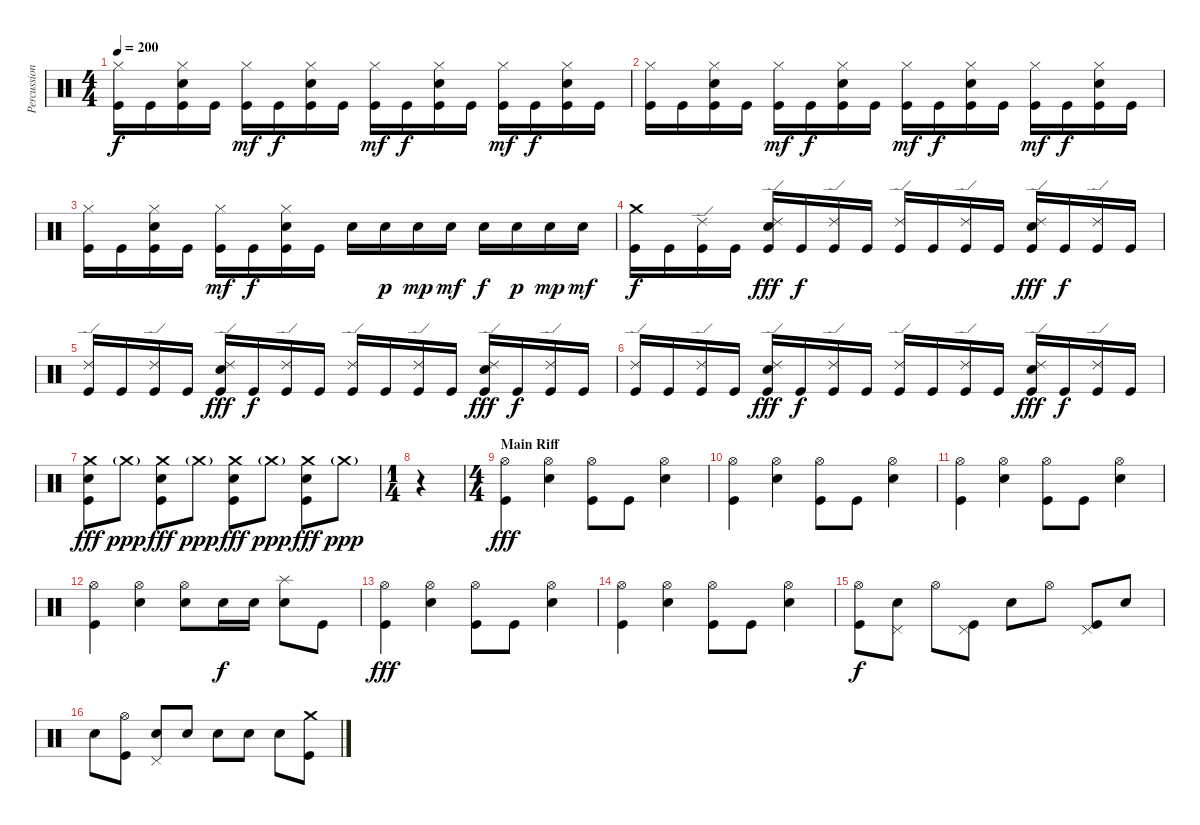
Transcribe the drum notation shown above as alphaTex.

\track ("Percussion" "Percussion") {instrument percussion}
\staff {score}
\articulation defaults
\ts (4 4)
\tempo 200
\clef neutral
\ks c
("Hi-Hat (closed)" "Kick (hit)").16{dy f} "Kick (hit)".16 ("Hi-Hat (closed)" "Electric Snare (hit)" "Kick (hit)").16 "Kick (hit)".16 ("Hi-Hat (closed)" "Kick (hit)").16{dy mf} "Kick (hit)".16{dy f} ("Hi-Hat (closed)" "Electric Snare (hit)" "Kick (hit)").16 "Kick (hit)".16 ("Hi-Hat (closed)" "Kick (hit)").16{dy mf} "Kick (hit)".16{dy f} ("Hi-Hat (closed)" "Electric Snare (hit)" "Kick (hit)").16 "Kick (hit)".16 ("Hi-Hat (closed)" "Kick (hit)").16{dy mf} "Kick (hit)".16{dy f} ("Hi-Hat (closed)" "Electric Snare (hit)" "Kick (hit)").16 "Kick (hit)".16 |
("Hi-Hat (closed)" "Kick (hit)").16 "Kick (hit)".16 ("Hi-Hat (closed)" "Electric Snare (hit)" "Kick (hit)").16 "Kick (hit)".16 ("Hi-Hat (closed)" "Kick (hit)").16{dy mf} "Kick (hit)".16{dy f} ("Hi-Hat (closed)" "Electric Snare (hit)" "Kick (hit)").16 "Kick (hit)".16 ("Hi-Hat (closed)" "Kick (hit)").16{dy mf} "Kick (hit)".16{dy f} ("Hi-Hat (closed)" "Electric Snare (hit)" "Kick (hit)").16 "Kick (hit)".16 ("Hi-Hat (closed)" "Kick (hit)").16{dy mf} "Kick (hit)".16{dy f} ("Hi-Hat (closed)" "Electric Snare (hit)" "Kick (hit)").16 "Kick (hit)".16 |
("Hi-Hat (closed)" "Kick (hit)").16 "Kick (hit)".16 ("Hi-Hat (closed)" "Electric Snare (hit)" "Kick (hit)").16 "Kick (hit)".16 ("Hi-Hat (closed)" "Kick (hit)").16{dy mf} "Kick (hit)".16{dy f} ("Hi-Hat (closed)" "Electric Snare (hit)" "Kick (hit)").16 "Kick (hit)".16 "Electric Snare (hit)".16 "Electric Snare (hit)".16{dy p} "Electric Snare (hit)".16{dy mp} "Electric Snare (hit)".16{dy mf} "Electric Snare (hit)".16{dy f} "Electric Snare (hit)".16{dy p} "Electric Snare (hit)".16{dy mp} "Electric Snare (hit)".16{dy mf} |
("Crash medium (hit)" "Kick (hit)").16{dy f} "Kick (hit)".16 ("Ride (edge) 2" "Kick (hit)").16 "Kick (hit)".16 ("Ride (edge) 2" "Electric Snare (hit)" "Kick (hit)").16{dy fff} "Kick (hit)".16{dy f} ("Ride (edge) 2" "Kick (hit)").16 "Kick (hit)".16 ("Ride (edge) 2" "Kick (hit)").16 "Kick (hit)".16 ("Ride (edge) 2" "Kick (hit)").16 "Kick (hit)".16 ("Ride (edge) 2" "Electric Snare (hit)" "Kick (hit)").16{dy fff} "Kick (hit)".16{dy f} ("Ride (edge) 2" "Kick (hit)").16 "Kick (hit)".16 |
("Ride (edge) 2" "Kick (hit)").16 "Kick (hit)".16 ("Ride (edge) 2" "Kick (hit)").16 "Kick (hit)".16 ("Ride (edge) 2" "Electric Snare (hit)" "Kick (hit)").16{dy fff} "Kick (hit)".16{dy f} ("Ride (edge) 2" "Kick (hit)").16 "Kick (hit)".16 ("Ride (edge) 2" "Kick (hit)").16 "Kick (hit)".16 ("Ride (edge) 2" "Kick (hit)").16 "Kick (hit)".16 ("Ride (edge) 2" "Electric Snare (hit)" "Kick (hit)").16{dy fff} "Kick (hit)".16{dy f} ("Ride (edge) 2" "Kick (hit)").16 "Kick (hit)".16 |
("Ride (edge) 2" "Kick (hit)").16 "Kick (hit)".16 ("Ride (edge) 2" "Kick (hit)").16 "Kick (hit)".16 ("Ride (edge) 2" "Electric Snare (hit)" "Kick (hit)").16{dy fff} "Kick (hit)".16{dy f} ("Ride (edge) 2" "Kick (hit)").16 "Kick (hit)".16 ("Ride (edge) 2" "Kick (hit)").16 "Kick (hit)".16 ("Ride (edge) 2" "Kick (hit)").16 "Kick (hit)".16 ("Ride (edge) 2" "Electric Snare (hit)" "Kick (hit)").16{dy fff} "Kick (hit)".16{dy f} ("Ride (edge) 2" "Kick (hit)").16 "Kick (hit)".16 |
("Crash medium (hit)" "Electric Snare (hit)" "Kick (hit)").8{dy fff} "Crash medium (hit)"{g}.8{dy ppp} ("Crash medium (hit)" "Electric Snare (hit)" "Kick (hit)").8{dy fff} "Crash medium (hit)"{g}.8{dy ppp} ("Crash medium (hit)" "Electric Snare (hit)" "Kick (hit)").8{dy fff} "Crash medium (hit)"{g}.8{dy ppp} ("Crash medium (hit)" "Electric Snare (hit)" "Kick (hit)").8{dy fff} "Crash medium (hit)"{g}.8{dy ppp} |
\ts (1 4)
r.4 |
\ts (4 4)
\section ("" "Main Riff")
("Hi-Hat (open)" "Kick (hit)").4{dy fff} ("Hi-Hat (open)" "Electric Snare (hit)").4 ("Hi-Hat (open)" "Kick (hit)").8 "Kick (hit)".8 ("Hi-Hat (open)" "Electric Snare (hit)").4 |
("Hi-Hat (open)" "Kick (hit)").4 ("Hi-Hat (open)" "Electric Snare (hit)").4 ("Hi-Hat (open)" "Kick (hit)").8 "Kick (hit)".8 ("Hi-Hat (open)" "Electric Snare (hit)").4 |
("Hi-Hat (open)" "Kick (hit)").4 ("Hi-Hat (open)" "Electric Snare (hit)").4 ("Hi-Hat (open)" "Kick (hit)").8 "Kick (hit)".8 ("Hi-Hat (open)" "Electric Snare (hit)").4 |
("Hi-Hat (open)" "Kick (hit)").4 ("Hi-Hat (open)" "Electric Snare (hit)").4 ("Hi-Hat (open)" "Electric Snare (hit)").8 "Electric Snare (hit)".16{dy f} "Electric Snare (hit)".16 ("Splash (hit)" "Electric Snare (hit)").8 "Kick (hit)".8 |
("Hi-Hat (open)" "Kick (hit)").4{dy fff} ("Hi-Hat (open)" "Electric Snare (hit)").4 ("Hi-Hat (open)" "Kick (hit)").8 "Kick (hit)".8 ("Hi-Hat (open)" "Electric Snare (hit)").4 |
("Hi-Hat (open)" "Kick (hit)").4 ("Hi-Hat (open)" "Electric Snare (hit)").4 ("Hi-Hat (open)" "Kick (hit)").8 "Kick (hit)".8 ("Hi-Hat (open)" "Electric Snare (hit)").4 |
("Hi-Hat (open)" "Kick (hit)").8{dy f} ("Pedal Hi-Hat (hit)" "Electric Snare (hit)").8 "Hi-Hat (open)".8 ("Pedal Hi-Hat (hit)" "Kick (hit)").8 "Electric Snare (hit)".8 "Hi-Hat (open)".8 ("Pedal Hi-Hat (hit)" "Kick (hit)").8 "Electric Snare (hit)".8 |
"Electric Snare (hit)".8 ("Hi-Hat (open)" "Kick (hit)").8 ("Pedal Hi-Hat (hit)" "Electric Snare (hit)").8 "Electric Snare (hit)".8 "Electric Snare (hit)".8 "Electric Snare (hit)".8 "Electric Snare (hit)".8 ("Crash medium (hit)" "Kick (hit)").8
